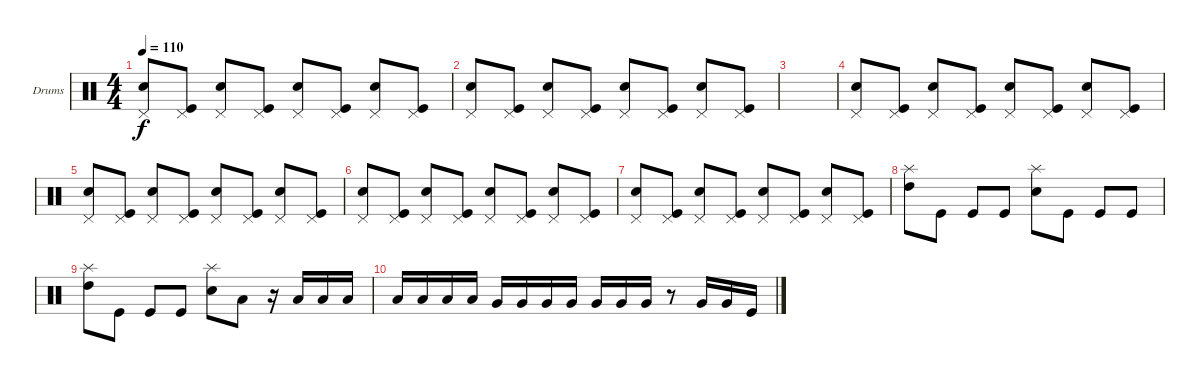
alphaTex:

\defaultSystemsLayout 4
\bracketExtendMode groupsimilarinstruments
\firstSystemTrackNameOrientation horizontal
\otherSystemsTrackNameOrientation horizontal
\track ("Drumkit" "Drums") {instrument percussion}
\staff {score}
\articulation defaults
\ts (4 4)
\tempo 110
\clef neutral
\ks c
("Pedal Hi-Hat (hit)" "Snare (hit) 2").8{dy f} ("Kick (hit)" "Pedal Hi-Hat (hit)").8 ("Pedal Hi-Hat (hit)" "Snare (hit) 2").8 ("Kick (hit)" "Pedal Hi-Hat (hit)").8 ("Pedal Hi-Hat (hit)" "Snare (hit) 2").8 ("Kick (hit)" "Pedal Hi-Hat (hit)").8 ("Pedal Hi-Hat (hit)" "Snare (hit) 2").8 ("Kick (hit)" "Pedal Hi-Hat (hit)").8 |
("Pedal Hi-Hat (hit)" "Snare (hit) 2").8 ("Kick (hit)" "Pedal Hi-Hat (hit)").8 ("Pedal Hi-Hat (hit)" "Snare (hit) 2").8 ("Kick (hit)" "Pedal Hi-Hat (hit)").8 ("Pedal Hi-Hat (hit)" "Snare (hit) 2").8 ("Kick (hit)" "Pedal Hi-Hat (hit)").8 ("Pedal Hi-Hat (hit)" "Snare (hit) 2").8 ("Kick (hit)" "Pedal Hi-Hat (hit)").8 |
|
("Pedal Hi-Hat (hit)" "Snare (hit) 2").8 ("Kick (hit)" "Pedal Hi-Hat (hit)").8 ("Pedal Hi-Hat (hit)" "Snare (hit) 2").8 ("Kick (hit)" "Pedal Hi-Hat (hit)").8 ("Pedal Hi-Hat (hit)" "Snare (hit) 2").8 ("Kick (hit)" "Pedal Hi-Hat (hit)").8 ("Pedal Hi-Hat (hit)" "Snare (hit) 2").8 ("Kick (hit)" "Pedal Hi-Hat (hit)").8 |
("Pedal Hi-Hat (hit)" "Snare (hit) 2").8 ("Kick (hit)" "Pedal Hi-Hat (hit)").8 ("Pedal Hi-Hat (hit)" "Snare (hit) 2").8 ("Kick (hit)" "Pedal Hi-Hat (hit)").8 ("Pedal Hi-Hat (hit)" "Snare (hit) 2").8 ("Kick (hit)" "Pedal Hi-Hat (hit)").8 ("Pedal Hi-Hat (hit)" "Snare (hit) 2").8 ("Kick (hit)" "Pedal Hi-Hat (hit)").8 |
("Pedal Hi-Hat (hit)" "Snare (hit) 2").8 ("Kick (hit)" "Pedal Hi-Hat (hit)").8 ("Pedal Hi-Hat (hit)" "Snare (hit) 2").8 ("Kick (hit)" "Pedal Hi-Hat (hit)").8 ("Pedal Hi-Hat (hit)" "Snare (hit) 2").8 ("Kick (hit)" "Pedal Hi-Hat (hit)").8 ("Pedal Hi-Hat (hit)" "Snare (hit) 2").8 ("Kick (hit)" "Pedal Hi-Hat (hit)").8 |
("Pedal Hi-Hat (hit)" "Snare (hit) 2").8 ("Kick (hit)" "Pedal Hi-Hat (hit)").8 ("Pedal Hi-Hat (hit)" "Snare (hit) 2").8 ("Kick (hit)" "Pedal Hi-Hat (hit)").8 ("Pedal Hi-Hat (hit)" "Snare (hit) 2").8 ("Kick (hit)" "Pedal Hi-Hat (hit)").8 ("Pedal Hi-Hat (hit)" "Snare (hit) 2").8 ("Kick (hit)" "Pedal Hi-Hat (hit)").8 |
("Splash (hit)" "High Tom (hit)").8 "Kick (hit)".8 "Kick (hit)".8 "Kick (hit)".8 ("Snare (hit) 2" "Splash (hit)").8 "Kick (hit)".8 "Kick (hit)".8 "Kick (hit)".8 |
("Splash (hit)" "High Tom (hit)").8 "Kick (hit)".8 "Kick (hit)".8 "Kick (hit)".8 ("Snare (hit) 2" "Splash (hit)").8 "Low Tom (hit)".8 r.16 "Low Tom (hit)".16 "Low Tom (hit)".16 "Low Tom (hit)".16 |
"Low Tom (hit)".16 "Low Tom (hit)".16 "Low Tom (hit)".16 "Low Tom (hit)".16 "Very Low Tom (hit)".16 "Very Low Tom (hit)".16 "Very Low Tom (hit)".16 "Very Low Tom (hit)".16 "Very Low Tom (hit)".16 "Very Low Tom (hit)".16 "Very Low Tom (hit)".16 r.8 "Very Low Tom (hit)".16 "Very Low Tom (hit)".16 "Kick (hit)".16
